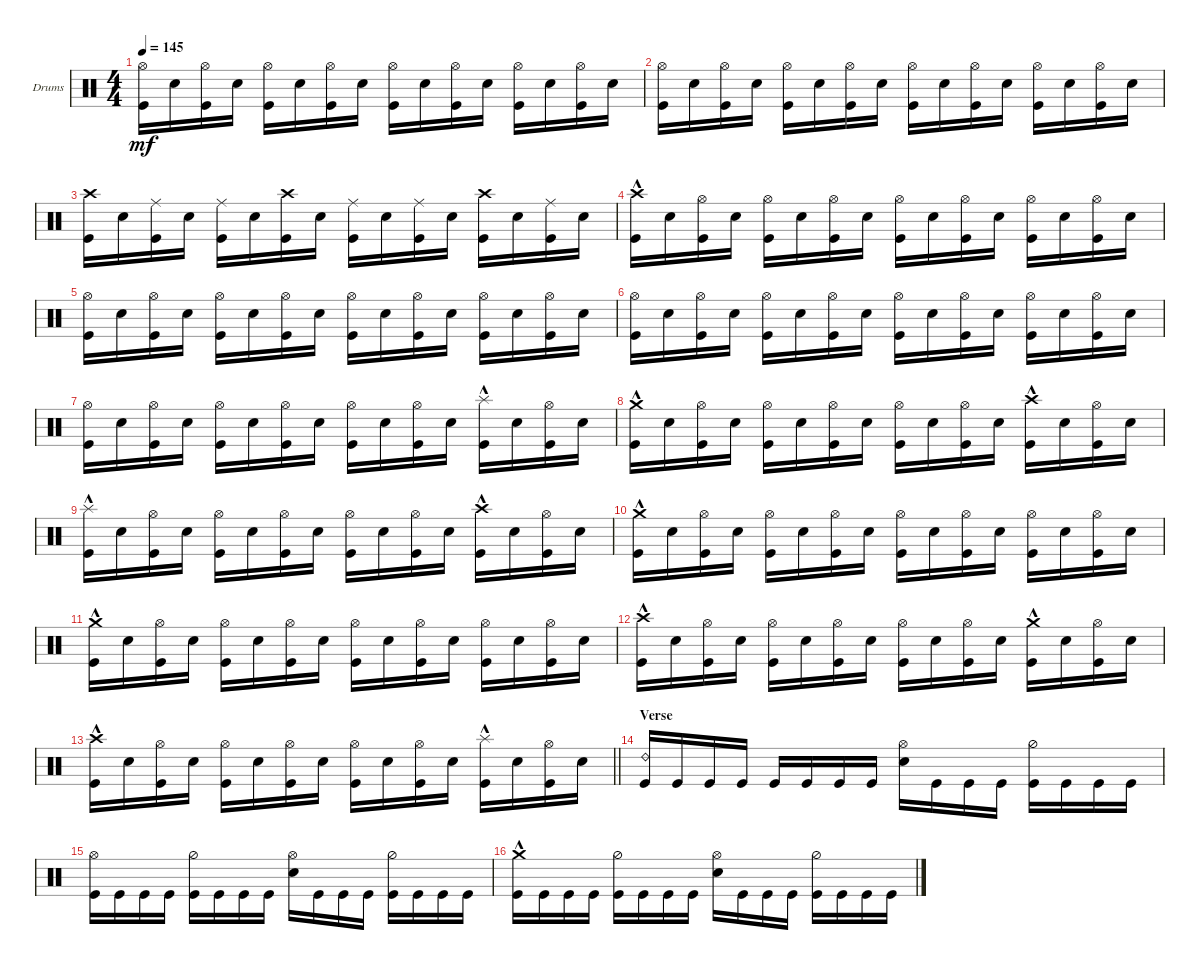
\defaultSystemsLayout 4
\bracketExtendMode groupsimilarinstruments
\firstSystemTrackNameOrientation horizontal
\otherSystemsTrackNameOrientation horizontal
\track ("Drumkit" "Drums") {instrument percussion}
\staff {score}
\articulation defaults
\ts (4 4)
\tempo 145
\clef neutral
\ks c
("Kick (hit)" "Hi-Hat (open)").16{dy mf} "Snare (hit) 2".16 ("Kick (hit)" "Hi-Hat (open)").16 "Snare (hit) 2".16 ("Kick (hit)" "Hi-Hat (open)").16 "Snare (hit) 2".16 ("Kick (hit)" "Hi-Hat (open)").16 "Snare (hit) 2".16 ("Kick (hit)" "Hi-Hat (open)").16 "Snare (hit) 2".16 ("Kick (hit)" "Hi-Hat (open)").16 "Snare (hit) 2".16 ("Kick (hit)" "Hi-Hat (open)").16 "Snare (hit) 2".16 ("Kick (hit)" "Hi-Hat (open)").16 "Snare (hit) 2".16 |
("Kick (hit)" "Hi-Hat (open)").16 "Snare (hit) 2".16 ("Kick (hit)" "Hi-Hat (open)").16 "Snare (hit) 2".16 ("Kick (hit)" "Hi-Hat (open)").16 "Snare (hit) 2".16 ("Kick (hit)" "Hi-Hat (open)").16 "Snare (hit) 2".16 ("Kick (hit)" "Hi-Hat (open)").16 "Snare (hit) 2".16 ("Kick (hit)" "Hi-Hat (open)").16 "Snare (hit) 2".16 ("Kick (hit)" "Hi-Hat (open)").16 "Snare (hit) 2".16 ("Kick (hit)" "Hi-Hat (open)").16 "Snare (hit) 2".16 |
("Kick (hit)" "Crash high (hit)").16 "Snare (hit) 2".16 ("Kick (hit)" "Ride (middle)").16 "Snare (hit) 2".16 ("Kick (hit)" "Ride (middle)").16 "Snare (hit) 2".16 ("Kick (hit)" "Crash high (hit)").16 "Snare (hit) 2".16 ("Kick (hit)" "Ride (middle)").16 "Snare (hit) 2".16 ("Kick (hit)" "Ride (middle)").16 "Snare (hit) 2".16 ("Kick (hit)" "Crash high (hit)").16 "Snare (hit) 2".16 ("Kick (hit)" "Ride (middle)").16 "Snare (hit) 2".16 |
("Kick (hit)" "Crash high (hit)"{hac}).16 "Snare (hit) 2".16 ("Kick (hit)" "Hi-Hat (open)").16 "Snare (hit) 2".16 ("Kick (hit)" "Hi-Hat (open)").16 "Snare (hit) 2".16 ("Kick (hit)" "Hi-Hat (open)").16 "Snare (hit) 2".16 ("Kick (hit)" "Hi-Hat (open)").16 "Snare (hit) 2".16 ("Kick (hit)" "Hi-Hat (open)").16 "Snare (hit) 2".16 ("Kick (hit)" "Hi-Hat (open)").16 "Snare (hit) 2".16 ("Kick (hit)" "Hi-Hat (open)").16 "Snare (hit) 2".16 |
("Kick (hit)" "Hi-Hat (open)").16 "Snare (hit) 2".16 ("Kick (hit)" "Hi-Hat (open)").16 "Snare (hit) 2".16 ("Kick (hit)" "Hi-Hat (open)").16 "Snare (hit) 2".16 ("Kick (hit)" "Hi-Hat (open)").16 "Snare (hit) 2".16 ("Kick (hit)" "Hi-Hat (open)").16 "Snare (hit) 2".16 ("Kick (hit)" "Hi-Hat (open)").16 "Snare (hit) 2".16 ("Kick (hit)" "Hi-Hat (open)").16 "Snare (hit) 2".16 ("Kick (hit)" "Hi-Hat (open)").16 "Snare (hit) 2".16 |
("Kick (hit)" "Hi-Hat (open)").16 "Snare (hit) 2".16 ("Kick (hit)" "Hi-Hat (open)").16 "Snare (hit) 2".16 ("Kick (hit)" "Hi-Hat (open)").16 "Snare (hit) 2".16 ("Kick (hit)" "Hi-Hat (open)").16 "Snare (hit) 2".16 ("Kick (hit)" "Hi-Hat (open)").16 "Snare (hit) 2".16 ("Kick (hit)" "Hi-Hat (open)").16 "Snare (hit) 2".16 ("Kick (hit)" "Hi-Hat (open)").16 "Snare (hit) 2".16 ("Kick (hit)" "Hi-Hat (open)").16 "Snare (hit) 2".16 |
("Kick (hit)" "Hi-Hat (open)").16 "Snare (hit) 2".16 ("Kick (hit)" "Hi-Hat (open)").16 "Snare (hit) 2".16 ("Kick (hit)" "Hi-Hat (open)").16 "Snare (hit) 2".16 ("Kick (hit)" "Hi-Hat (open)").16 "Snare (hit) 2".16 ("Kick (hit)" "Hi-Hat (open)").16 "Snare (hit) 2".16 ("Kick (hit)" "Hi-Hat (open)").16 "Snare (hit) 2".16 ("Kick (hit)" "Splash (hit)"{hac}).16 "Snare (hit) 2".16 ("Kick (hit)" "Hi-Hat (open)").16 "Snare (hit) 2".16 |
("Kick (hit)" "Crash medium (hit)"{hac}).16 "Snare (hit) 2".16 ("Kick (hit)" "Hi-Hat (open)").16 "Snare (hit) 2".16 ("Kick (hit)" "Hi-Hat (open)").16 "Snare (hit) 2".16 ("Kick (hit)" "Hi-Hat (open)").16 "Snare (hit) 2".16 ("Kick (hit)" "Hi-Hat (open)").16 "Snare (hit) 2".16 ("Kick (hit)" "Hi-Hat (open)").16 "Snare (hit) 2".16 ("Kick (hit)" "Crash high (hit)"{hac}).16 "Snare (hit) 2".16 ("Kick (hit)" "Hi-Hat (open)").16 "Snare (hit) 2".16 |
("Kick (hit)" "Splash (hit)"{hac}).16 "Snare (hit) 2".16 ("Kick (hit)" "Hi-Hat (open)").16 "Snare (hit) 2".16 ("Kick (hit)" "Hi-Hat (open)").16 "Snare (hit) 2".16 ("Kick (hit)" "Hi-Hat (open)").16 "Snare (hit) 2".16 ("Kick (hit)" "Hi-Hat (open)").16 "Snare (hit) 2".16 ("Kick (hit)" "Hi-Hat (open)").16 "Snare (hit) 2".16 ("Kick (hit)" "Crash high (hit)"{hac}).16 "Snare (hit) 2".16 ("Kick (hit)" "Hi-Hat (open)").16 "Snare (hit) 2".16 |
("Kick (hit)" "Crash medium (hit)"{hac}).16 "Snare (hit) 2".16 ("Kick (hit)" "Hi-Hat (open)").16 "Snare (hit) 2".16 ("Kick (hit)" "Hi-Hat (open)").16 "Snare (hit) 2".16 ("Kick (hit)" "Hi-Hat (open)").16 "Snare (hit) 2".16 ("Kick (hit)" "Hi-Hat (open)").16 "Snare (hit) 2".16 ("Kick (hit)" "Hi-Hat (open)").16 "Snare (hit) 2".16 ("Kick (hit)" "Hi-Hat (open)").16 "Snare (hit) 2".16 ("Kick (hit)" "Hi-Hat (open)").16 "Snare (hit) 2".16 |
("Kick (hit)" "Crash medium (hit)"{hac}).16 "Snare (hit) 2".16 ("Kick (hit)" "Hi-Hat (open)").16 "Snare (hit) 2".16 ("Kick (hit)" "Hi-Hat (open)").16 "Snare (hit) 2".16 ("Kick (hit)" "Hi-Hat (open)").16 "Snare (hit) 2".16 ("Kick (hit)" "Hi-Hat (open)").16 "Snare (hit) 2".16 ("Kick (hit)" "Hi-Hat (open)").16 "Snare (hit) 2".16 ("Kick (hit)" "Hi-Hat (open)").16 "Snare (hit) 2".16 ("Kick (hit)" "Hi-Hat (open)").16 "Snare (hit) 2".16 |
("Kick (hit)" "Crash high (hit)"{hac}).16 "Snare (hit) 2".16 ("Kick (hit)" "Hi-Hat (open)").16 "Snare (hit) 2".16 ("Kick (hit)" "Hi-Hat (open)").16 "Snare (hit) 2".16 ("Kick (hit)" "Hi-Hat (open)").16 "Snare (hit) 2".16 ("Kick (hit)" "Hi-Hat (open)").16 "Snare (hit) 2".16 ("Kick (hit)" "Hi-Hat (open)").16 "Snare (hit) 2".16 ("Kick (hit)" "Crash medium (hit)"{hac}).16 "Snare (hit) 2".16 ("Kick (hit)" "Hi-Hat (open)").16 "Snare (hit) 2".16 |
\barLineRight lightlight
("Kick (hit)" "Crash high (hit)"{hac}).16 "Snare (hit) 2".16 ("Kick (hit)" "Hi-Hat (open)").16 "Snare (hit) 2".16 ("Kick (hit)" "Hi-Hat (open)").16 "Snare (hit) 2".16 ("Kick (hit)" "Hi-Hat (open)").16 "Snare (hit) 2".16 ("Kick (hit)" "Hi-Hat (open)").16 "Snare (hit) 2".16 ("Kick (hit)" "Hi-Hat (open)").16 "Snare (hit) 2".16 ("Kick (hit)" "Splash (hit)"{hac}).16 "Snare (hit) 2".16 ("Kick (hit)" "Hi-Hat (open)").16 "Snare (hit) 2".16 |
\section ("" "Verse")
("Kick (hit)" "Ride (bell) 2").16 "Kick (hit)".16 "Kick (hit)".16 "Kick (hit)".16 "Kick (hit)".16 "Kick (hit)".16 "Kick (hit)".16 "Kick (hit)".16 ("Snare (hit) 2" "Hi-Hat (open)").16 "Kick (hit)".16 "Kick (hit)".16 "Kick (hit)".16 ("Kick (hit)" "Hi-Hat (half)").16 "Kick (hit)".16 "Kick (hit)".16 "Kick (hit)".16 |
("Kick (hit)" "Hi-Hat (open)").16 "Kick (hit)".16 "Kick (hit)".16 "Kick (hit)".16 ("Kick (hit)" "Hi-Hat (half)").16 "Kick (hit)".16 "Kick (hit)".16 "Kick (hit)".16 ("Snare (hit) 2" "Hi-Hat (open)").16 "Kick (hit)".16 "Kick (hit)".16 "Kick (hit)".16 ("Kick (hit)" "Hi-Hat (half)").16 "Kick (hit)".16 "Kick (hit)".16 "Kick (hit)".16 |
("Kick (hit)" "Crash medium (hit)"{hac}).16 "Kick (hit)".16 "Kick (hit)".16 "Kick (hit)".16 ("Kick (hit)" "Hi-Hat (half)").16 "Kick (hit)".16 "Kick (hit)".16 "Kick (hit)".16 ("Snare (hit) 2" "Hi-Hat (open)").16 "Kick (hit)".16 "Kick (hit)".16 "Kick (hit)".16 ("Kick (hit)" "Hi-Hat (half)").16 "Kick (hit)".16 "Kick (hit)".16 "Kick (hit)".16
